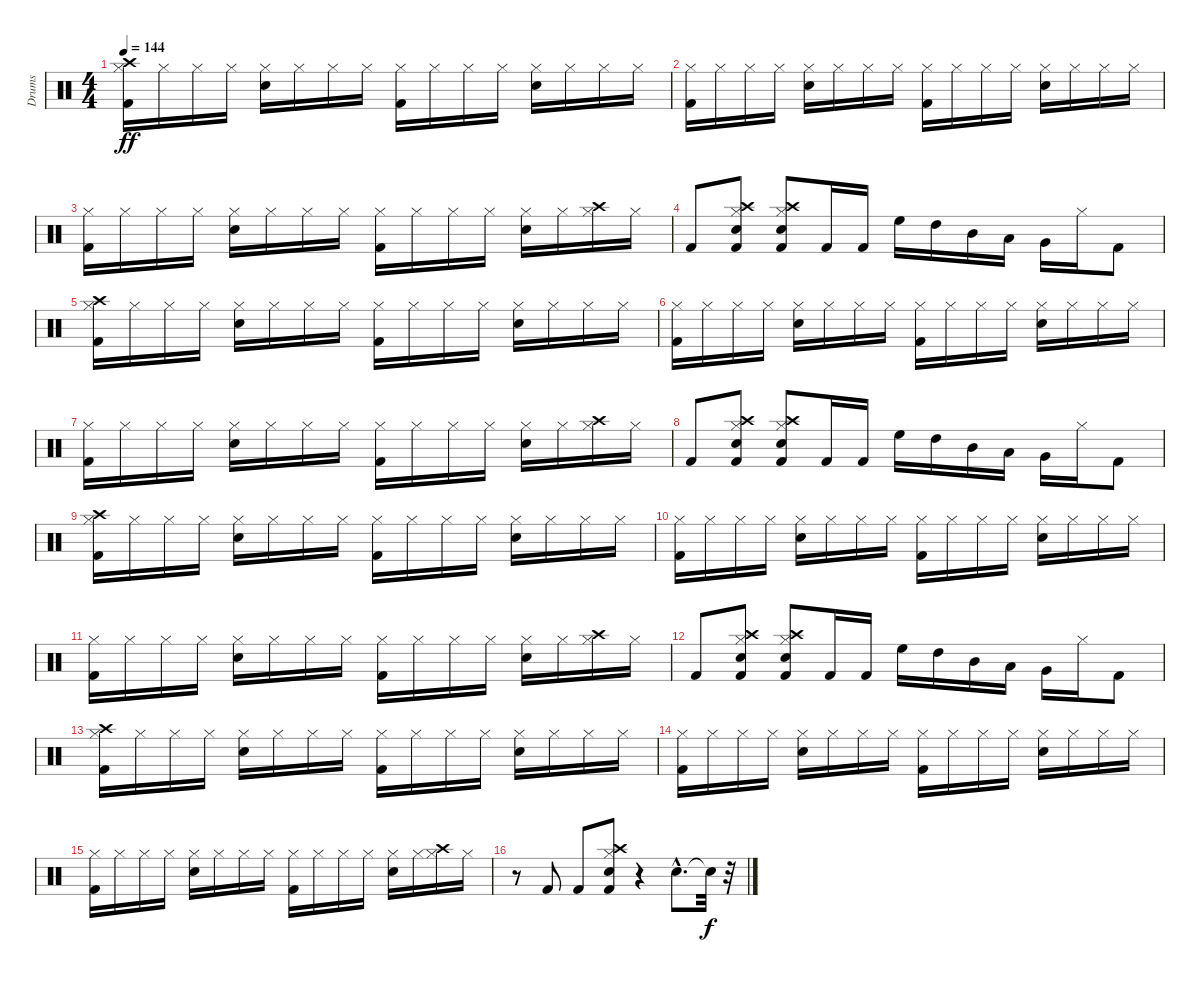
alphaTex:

\track ("Drums" "Drums") {instrument percussion}
\staff {score}
\articulation defaults
\ts (4 4)
\tempo 144
\clef neutral
\ks c
("Kick (hit) 2" "Hi-Hat (closed)" "Crash high (hit)").16{dy ff} "Hi-Hat (closed)".16 "Hi-Hat (closed)".16 "Hi-Hat (closed)".16 ("Snare (hit) 2" "Hi-Hat (closed)").16 "Hi-Hat (closed)".16 "Hi-Hat (closed)".16 "Hi-Hat (closed)".16 ("Kick (hit) 2" "Hi-Hat (closed)").16 "Hi-Hat (closed)".16 "Hi-Hat (closed)".16 "Hi-Hat (closed)".16 ("Snare (hit) 2" "Hi-Hat (closed)").16 "Hi-Hat (closed)".16 "Hi-Hat (closed)".16 "Hi-Hat (closed)".16 |
("Kick (hit) 2" "Hi-Hat (closed)").16 "Hi-Hat (closed)".16 "Hi-Hat (closed)".16 "Hi-Hat (closed)".16 ("Snare (hit) 2" "Hi-Hat (closed)").16 "Hi-Hat (closed)".16 "Hi-Hat (closed)".16 "Hi-Hat (closed)".16 ("Kick (hit) 2" "Hi-Hat (closed)").16 "Hi-Hat (closed)".16 "Hi-Hat (closed)".16 "Hi-Hat (closed)".16 ("Snare (hit) 2" "Hi-Hat (closed)").16 "Hi-Hat (closed)".16 "Hi-Hat (closed)".16 "Hi-Hat (closed)".16 |
("Kick (hit) 2" "Hi-Hat (closed)").16 "Hi-Hat (closed)".16 "Hi-Hat (closed)".16 "Hi-Hat (closed)".16 ("Snare (hit) 2" "Hi-Hat (closed)").16 "Hi-Hat (closed)".16 "Hi-Hat (closed)".16 "Hi-Hat (closed)".16 ("Kick (hit) 2" "Hi-Hat (closed)").16 "Hi-Hat (closed)".16 "Hi-Hat (closed)".16 "Hi-Hat (closed)".16 ("Snare (hit) 2" "Hi-Hat (closed)").16 "Hi-Hat (closed)".16 ("Hi-Hat (closed)" "Crash high (hit)").16 "Hi-Hat (closed)".16 |
"Kick (hit) 2".8 ("Kick (hit) 2" "Snare (hit) 2" "Hi-Hat (closed)" "Crash high (hit)").8 ("Kick (hit) 2" "Snare (hit) 2" "Hi-Hat (closed)" "Crash high (hit)").8 "Kick (hit) 2".16 "Kick (hit) 2".16 "High Floor Tom (hit)".16 "High Tom (hit)".16 "Mid Tom (hit)".16 "Low Tom (hit)".16 "Very Low Tom (hit)".16 "Hi-Hat (closed)".16 "Kick (hit) 2".8 |
("Kick (hit) 2" "Hi-Hat (closed)" "Crash high (hit)").16 "Hi-Hat (closed)".16 "Hi-Hat (closed)".16 "Hi-Hat (closed)".16 ("Snare (hit) 2" "Hi-Hat (closed)").16 "Hi-Hat (closed)".16 "Hi-Hat (closed)".16 "Hi-Hat (closed)".16 ("Kick (hit) 2" "Hi-Hat (closed)").16 "Hi-Hat (closed)".16 "Hi-Hat (closed)".16 "Hi-Hat (closed)".16 ("Snare (hit) 2" "Hi-Hat (closed)").16 "Hi-Hat (closed)".16 "Hi-Hat (closed)".16 "Hi-Hat (closed)".16 |
("Kick (hit) 2" "Hi-Hat (closed)").16 "Hi-Hat (closed)".16 "Hi-Hat (closed)".16 "Hi-Hat (closed)".16 ("Snare (hit) 2" "Hi-Hat (closed)").16 "Hi-Hat (closed)".16 "Hi-Hat (closed)".16 "Hi-Hat (closed)".16 ("Kick (hit) 2" "Hi-Hat (closed)").16 "Hi-Hat (closed)".16 "Hi-Hat (closed)".16 "Hi-Hat (closed)".16 ("Snare (hit) 2" "Hi-Hat (closed)").16 "Hi-Hat (closed)".16 "Hi-Hat (closed)".16 "Hi-Hat (closed)".16 |
("Kick (hit) 2" "Hi-Hat (closed)").16 "Hi-Hat (closed)".16 "Hi-Hat (closed)".16 "Hi-Hat (closed)".16 ("Snare (hit) 2" "Hi-Hat (closed)").16 "Hi-Hat (closed)".16 "Hi-Hat (closed)".16 "Hi-Hat (closed)".16 ("Kick (hit) 2" "Hi-Hat (closed)").16 "Hi-Hat (closed)".16 "Hi-Hat (closed)".16 "Hi-Hat (closed)".16 ("Snare (hit) 2" "Hi-Hat (closed)").16 "Hi-Hat (closed)".16 ("Hi-Hat (closed)" "Crash high (hit)").16 "Hi-Hat (closed)".16 |
"Kick (hit) 2".8 ("Kick (hit) 2" "Snare (hit) 2" "Hi-Hat (closed)" "Crash high (hit)").8 ("Kick (hit) 2" "Snare (hit) 2" "Hi-Hat (closed)" "Crash high (hit)").8 "Kick (hit) 2".16 "Kick (hit) 2".16 "High Floor Tom (hit)".16 "High Tom (hit)".16 "Mid Tom (hit)".16 "Low Tom (hit)".16 "Very Low Tom (hit)".16 "Hi-Hat (closed)".16 "Kick (hit) 2".8 |
("Kick (hit) 2" "Hi-Hat (closed)" "Crash high (hit)").16 "Hi-Hat (closed)".16 "Hi-Hat (closed)".16 "Hi-Hat (closed)".16 ("Snare (hit) 2" "Hi-Hat (closed)").16 "Hi-Hat (closed)".16 "Hi-Hat (closed)".16 "Hi-Hat (closed)".16 ("Kick (hit) 2" "Hi-Hat (closed)").16 "Hi-Hat (closed)".16 "Hi-Hat (closed)".16 "Hi-Hat (closed)".16 ("Snare (hit) 2" "Hi-Hat (closed)").16 "Hi-Hat (closed)".16 "Hi-Hat (closed)".16 "Hi-Hat (closed)".16 |
("Kick (hit) 2" "Hi-Hat (closed)").16 "Hi-Hat (closed)".16 "Hi-Hat (closed)".16 "Hi-Hat (closed)".16 ("Snare (hit) 2" "Hi-Hat (closed)").16 "Hi-Hat (closed)".16 "Hi-Hat (closed)".16 "Hi-Hat (closed)".16 ("Kick (hit) 2" "Hi-Hat (closed)").16 "Hi-Hat (closed)".16 "Hi-Hat (closed)".16 "Hi-Hat (closed)".16 ("Snare (hit) 2" "Hi-Hat (closed)").16 "Hi-Hat (closed)".16 "Hi-Hat (closed)".16 "Hi-Hat (closed)".16 |
("Kick (hit) 2" "Hi-Hat (closed)").16 "Hi-Hat (closed)".16 "Hi-Hat (closed)".16 "Hi-Hat (closed)".16 ("Snare (hit) 2" "Hi-Hat (closed)").16 "Hi-Hat (closed)".16 "Hi-Hat (closed)".16 "Hi-Hat (closed)".16 ("Kick (hit) 2" "Hi-Hat (closed)").16 "Hi-Hat (closed)".16 "Hi-Hat (closed)".16 "Hi-Hat (closed)".16 ("Snare (hit) 2" "Hi-Hat (closed)").16 "Hi-Hat (closed)".16 ("Hi-Hat (closed)" "Crash high (hit)").16 "Hi-Hat (closed)".16 |
"Kick (hit) 2".8 ("Kick (hit) 2" "Snare (hit) 2" "Hi-Hat (closed)" "Crash high (hit)").8 ("Kick (hit) 2" "Snare (hit) 2" "Hi-Hat (closed)" "Crash high (hit)").8 "Kick (hit) 2".16 "Kick (hit) 2".16 "High Floor Tom (hit)".16 "High Tom (hit)".16 "Mid Tom (hit)".16 "Low Tom (hit)".16 "Very Low Tom (hit)".16 "Hi-Hat (closed)".16 "Kick (hit) 2".8 |
("Kick (hit) 2" "Hi-Hat (closed)" "Crash high (hit)").16 "Hi-Hat (closed)".16 "Hi-Hat (closed)".16 "Hi-Hat (closed)".16 ("Snare (hit) 2" "Hi-Hat (closed)").16 "Hi-Hat (closed)".16 "Hi-Hat (closed)".16 "Hi-Hat (closed)".16 ("Kick (hit) 2" "Hi-Hat (closed)").16 "Hi-Hat (closed)".16 "Hi-Hat (closed)".16 "Hi-Hat (closed)".16 ("Snare (hit) 2" "Hi-Hat (closed)").16 "Hi-Hat (closed)".16 "Hi-Hat (closed)".16 "Hi-Hat (closed)".16 |
("Kick (hit) 2" "Hi-Hat (closed)").16 "Hi-Hat (closed)".16 "Hi-Hat (closed)".16 "Hi-Hat (closed)".16 ("Snare (hit) 2" "Hi-Hat (closed)").16 "Hi-Hat (closed)".16 "Hi-Hat (closed)".16 "Hi-Hat (closed)".16 ("Kick (hit) 2" "Hi-Hat (closed)").16 "Hi-Hat (closed)".16 "Hi-Hat (closed)".16 "Hi-Hat (closed)".16 ("Snare (hit) 2" "Hi-Hat (closed)").16 "Hi-Hat (closed)".16 "Hi-Hat (closed)".16 "Hi-Hat (closed)".16 |
("Kick (hit) 2" "Hi-Hat (closed)").16 "Hi-Hat (closed)".16 "Hi-Hat (closed)".16 "Hi-Hat (closed)".16 ("Snare (hit) 2" "Hi-Hat (closed)").16 "Hi-Hat (closed)".16 "Hi-Hat (closed)".16 "Hi-Hat (closed)".16 ("Kick (hit) 2" "Hi-Hat (closed)").16 "Hi-Hat (closed)".16 "Hi-Hat (closed)".16 "Hi-Hat (closed)".16 ("Snare (hit) 2" "Hi-Hat (closed)").16 "Hi-Hat (closed)".16 ("Hi-Hat (closed)" "Crash high (hit)").16 "Hi-Hat (closed)".16 |
r.8 "Kick (hit) 2".8 "Kick (hit) 2".8 ("Kick (hit) 2" "Snare (hit) 2" "Hi-Hat (closed)" "Crash high (hit)").8 r.4 "Snare (hit) 2"{hac}.8{d} "Snare (hit)"{t}.32{dy f} r.32
